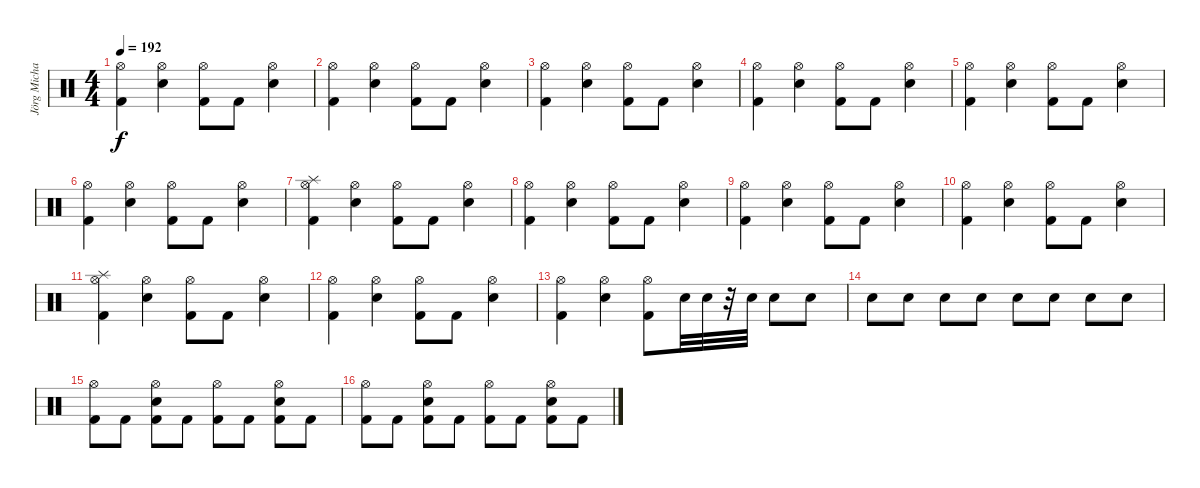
\track ("Jörg Michael" "Jörg Micha") {instrument percussion}
\staff {score}
\articulation defaults
\ts (4 4)
\tempo 192
\clef neutral
\ks c
("Hi-Hat (open)" "Kick (hit) 2").4{dy f} ("Hi-Hat (open)" "Electric Snare (hit)").4 ("Hi-Hat (open)" "Kick (hit) 2").8 "Kick (hit) 2".8 ("Hi-Hat (open)" "Electric Snare (hit)").4 |
("Hi-Hat (open)" "Kick (hit) 2").4 ("Hi-Hat (open)" "Electric Snare (hit)").4 ("Hi-Hat (open)" "Kick (hit) 2").8 "Kick (hit) 2".8 ("Hi-Hat (open)" "Electric Snare (hit)").4 |
("Hi-Hat (open)" "Kick (hit) 2").4 ("Hi-Hat (open)" "Electric Snare (hit)").4 ("Hi-Hat (open)" "Kick (hit) 2").8 "Kick (hit) 2".8 ("Hi-Hat (open)" "Electric Snare (hit)").4 |
("Hi-Hat (open)" "Kick (hit) 2").4 ("Hi-Hat (open)" "Electric Snare (hit)").4 ("Hi-Hat (open)" "Kick (hit) 2").8 "Kick (hit) 2".8 ("Hi-Hat (open)" "Electric Snare (hit)").4 |
("Hi-Hat (open)" "Kick (hit) 2").4 ("Hi-Hat (open)" "Electric Snare (hit)").4 ("Hi-Hat (open)" "Kick (hit) 2").8 "Kick (hit) 2".8 ("Hi-Hat (open)" "Electric Snare (hit)").4 |
("Hi-Hat (open)" "Kick (hit) 2").4 ("Hi-Hat (open)" "Electric Snare (hit)").4 ("Hi-Hat (open)" "Kick (hit) 2").8 "Kick (hit) 2".8 ("Hi-Hat (open)" "Electric Snare (hit)").4 |
("Splash (hit)" "Hi-Hat (open)" "Kick (hit) 2").4 ("Hi-Hat (open)" "Electric Snare (hit)").4 ("Hi-Hat (open)" "Kick (hit) 2").8 "Kick (hit) 2".8 ("Hi-Hat (open)" "Electric Snare (hit)").4 |
("Hi-Hat (open)" "Kick (hit) 2").4 ("Hi-Hat (open)" "Electric Snare (hit)").4 ("Hi-Hat (open)" "Kick (hit) 2").8 "Kick (hit) 2".8 ("Hi-Hat (open)" "Electric Snare (hit)").4 |
("Hi-Hat (open)" "Kick (hit) 2").4 ("Hi-Hat (open)" "Electric Snare (hit)").4 ("Hi-Hat (open)" "Kick (hit) 2").8 "Kick (hit) 2".8 ("Hi-Hat (open)" "Electric Snare (hit)").4 |
("Hi-Hat (open)" "Kick (hit) 2").4 ("Hi-Hat (open)" "Electric Snare (hit)").4 ("Hi-Hat (open)" "Kick (hit) 2").8 "Kick (hit) 2".8 ("Hi-Hat (open)" "Electric Snare (hit)").4 |
("Splash (hit)" "Hi-Hat (open)" "Kick (hit) 2").4 ("Hi-Hat (open)" "Electric Snare (hit)").4 ("Hi-Hat (open)" "Kick (hit) 2").8 "Kick (hit) 2".8 ("Hi-Hat (open)" "Electric Snare (hit)").4 |
("Hi-Hat (open)" "Kick (hit) 2").4 ("Hi-Hat (open)" "Electric Snare (hit)").4 ("Hi-Hat (open)" "Kick (hit) 2").8 "Kick (hit) 2".8 ("Hi-Hat (open)" "Electric Snare (hit)").4 |
("Hi-Hat (open)" "Kick (hit) 2").4 ("Hi-Hat (open)" "Electric Snare (hit)").4 ("Hi-Hat (open)" "Kick (hit) 2").8 "Electric Snare (hit)".32 "Electric Snare (hit)".32 r.32 "Electric Snare (hit)".32 "Electric Snare (hit)".8 "Electric Snare (hit)".8 |
"Electric Snare (hit)".8 "Electric Snare (hit)".8 "Electric Snare (hit)".8 "Electric Snare (hit)".8 "Electric Snare (hit)".8 "Electric Snare (hit)".8 "Electric Snare (hit)".8 "Electric Snare (hit)".8 |
("Hi-Hat (open)" "Kick (hit) 2").8 "Kick (hit) 2".8 ("Electric Snare (hit)" "Hi-Hat (open)" "Kick (hit) 2").8 "Kick (hit) 2".8 ("Hi-Hat (open)" "Kick (hit) 2").8 "Kick (hit) 2".8 ("Electric Snare (hit)" "Hi-Hat (open)" "Kick (hit) 2").8 "Kick (hit) 2".8 |
("Hi-Hat (open)" "Kick (hit) 2").8 "Kick (hit) 2".8 ("Electric Snare (hit)" "Hi-Hat (open)" "Kick (hit) 2").8 "Kick (hit) 2".8 ("Hi-Hat (open)" "Kick (hit) 2").8 "Kick (hit) 2".8 ("Electric Snare (hit)" "Hi-Hat (open)" "Kick (hit) 2").8 "Kick (hit) 2".8
